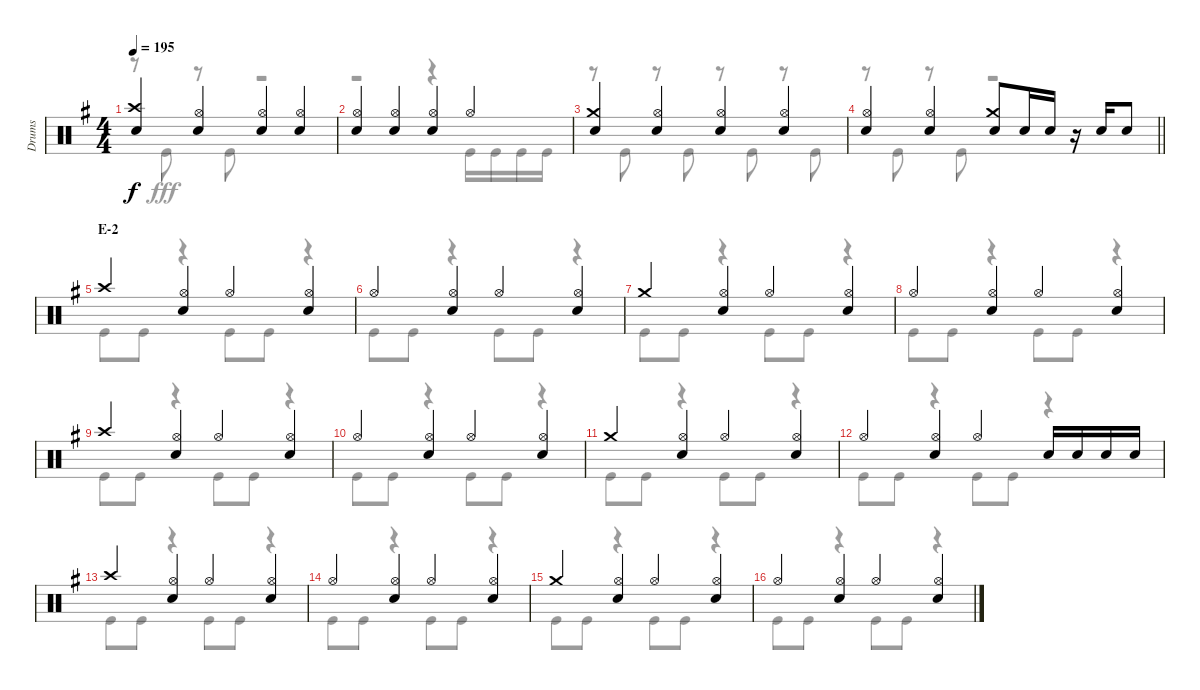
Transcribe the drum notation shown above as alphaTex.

\track ("Drums" "Drums") {instrument percussion}
\staff {score}
\articulation defaults
\voice
\ts (4 4)
\tempo 195
\clef neutral
\ks g
("Crash high (hit)" "Snare (hit) 2").4{dy f} ("Hi-Hat (open)" "Snare (hit) 2").4 ("Hi-Hat (open)" "Snare (hit) 2").4 ("Hi-Hat (open)" "Snare (hit) 2").4 |
("Hi-Hat (open)" "Snare (hit) 2").4 ("Hi-Hat (open)" "Snare (hit) 2").4 ("Hi-Hat (open)" "Snare (hit) 2").4 "Hi-Hat (open)".4 |
("Crash medium (hit)" "Snare (hit) 2").4 ("Hi-Hat (open)" "Snare (hit) 2").4 ("Hi-Hat (open)" "Snare (hit) 2").4 ("Hi-Hat (open)" "Snare (hit) 2").4 |
\barLineRight lightlight
("Hi-Hat (open)" "Snare (hit) 2").4 ("Hi-Hat (open)" "Snare (hit) 2").4 ("Crash medium (hit)" "Snare (hit) 2").8 "Snare (hit) 2".16 "Snare (hit) 2".16 r.16 "Snare (hit) 2".16 "Snare (hit) 2".8 |
\section ("" "E-2")
"Crash high (hit)".4 ("Hi-Hat (open)" "Snare (hit) 2").4 "Hi-Hat (open)".4 ("Hi-Hat (open)" "Snare (hit) 2").4 |
"Hi-Hat (open)".4 ("Hi-Hat (open)" "Snare (hit) 2").4 "Hi-Hat (open)".4 ("Hi-Hat (open)" "Snare (hit) 2").4 |
"Crash medium (hit)".4 ("Hi-Hat (open)" "Snare (hit) 2").4 "Hi-Hat (open)".4 ("Hi-Hat (open)" "Snare (hit) 2").4 |
"Hi-Hat (open)".4 ("Hi-Hat (open)" "Snare (hit) 2").4 "Hi-Hat (open)".4 ("Hi-Hat (open)" "Snare (hit) 2").4 |
"Crash high (hit)".4 ("Hi-Hat (open)" "Snare (hit) 2").4 "Hi-Hat (open)".4 ("Hi-Hat (open)" "Snare (hit) 2").4 |
"Hi-Hat (open)".4 ("Hi-Hat (open)" "Snare (hit) 2").4 "Hi-Hat (open)".4 ("Hi-Hat (open)" "Snare (hit) 2").4 |
"Crash medium (hit)".4 ("Hi-Hat (open)" "Snare (hit) 2").4 "Hi-Hat (open)".4 ("Hi-Hat (open)" "Snare (hit) 2").4 |
"Hi-Hat (open)".4 ("Hi-Hat (open)" "Snare (hit) 2").4 "Hi-Hat (open)".4 "Snare (hit) 2".16 "Snare (hit) 2".16 "Snare (hit) 2".16 "Snare (hit) 2".16 |
"Crash high (hit)".4 ("Hi-Hat (open)" "Snare (hit) 2").4 "Hi-Hat (open)".4 ("Hi-Hat (open)" "Snare (hit) 2").4 |
"Hi-Hat (open)".4 ("Hi-Hat (open)" "Snare (hit) 2").4 "Hi-Hat (open)".4 ("Hi-Hat (open)" "Snare (hit) 2").4 |
"Crash medium (hit)".4 ("Hi-Hat (open)" "Snare (hit) 2").4 "Hi-Hat (open)".4 ("Hi-Hat (open)" "Snare (hit) 2").4 |
"Hi-Hat (open)".4 ("Hi-Hat (open)" "Snare (hit) 2").4 "Hi-Hat (open)".4 ("Hi-Hat (open)" "Snare (hit) 2").4
\voice
\clef neutral
\ottava regular
\simile none
\ks g
r.8{dy fff} "Kick (hit)".8 r.8 "Kick (hit)".8 r.2 |
r.2 r.4 "Kick (hit)".16 "Kick (hit)".16 "Kick (hit)".16 "Kick (hit)".16 |
r.8 "Kick (hit)".8 r.8 "Kick (hit)".8 r.8 "Kick (hit)".8 r.8 "Kick (hit)".8 |
\barLineRight lightlight
r.8 "Kick (hit)".8 r.8 "Kick (hit)".8 r.2 |
"Kick (hit)".8 "Kick (hit)".8 r.4 "Kick (hit)".8 "Kick (hit)".8 r.4 |
"Kick (hit)".8 "Kick (hit)".8 r.4 "Kick (hit)".8 "Kick (hit)".8 r.4 |
"Kick (hit)".8 "Kick (hit)".8 r.4 "Kick (hit)".8 "Kick (hit)".8 r.4 |
"Kick (hit)".8 "Kick (hit)".8 r.4 "Kick (hit)".8 "Kick (hit)".8 r.4 |
"Kick (hit)".8 "Kick (hit)".8 r.4 "Kick (hit)".8 "Kick (hit)".8 r.4 |
"Kick (hit)".8 "Kick (hit)".8 r.4 "Kick (hit)".8 "Kick (hit)".8 r.4 |
"Kick (hit)".8 "Kick (hit)".8 r.4 "Kick (hit)".8 "Kick (hit)".8 r.4 |
"Kick (hit)".8 "Kick (hit)".8 r.4 "Kick (hit)".8 "Kick (hit)".8 r.4 |
"Kick (hit)".8 "Kick (hit)".8 r.4 "Kick (hit)".8 "Kick (hit)".8 r.4 |
"Kick (hit)".8 "Kick (hit)".8 r.4 "Kick (hit)".8 "Kick (hit)".8 r.4 |
"Kick (hit)".8 "Kick (hit)".8 r.4 "Kick (hit)".8 "Kick (hit)".8 r.4 |
"Kick (hit)".8 "Kick (hit)".8 r.4 "Kick (hit)".8 "Kick (hit)".8 r.4
